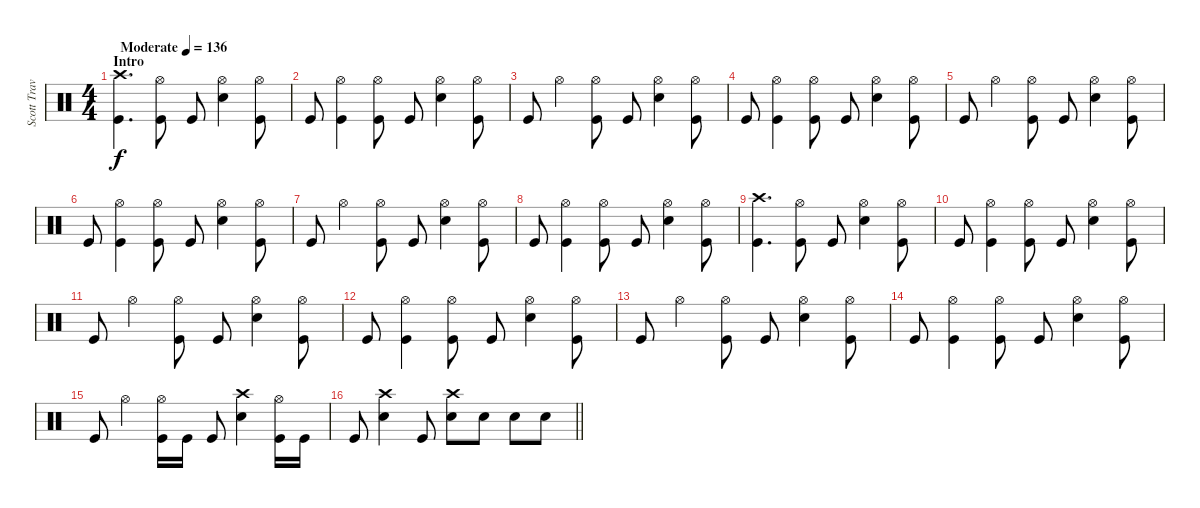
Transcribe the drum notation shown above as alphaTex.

\track ("Scott Travis" "Scott Trav") {instrument percussion}
\staff {score}
\articulation defaults
\ts (4 4)
\section ("" "Intro")
\tempo (136 "Moderate")
\clef neutral
\ks c
("Crash high (hit)" "Kick (hit)").4{d dy f} ("Hi-Hat (open)" "Kick (hit)").8 "Kick (hit)".8 ("Hi-Hat (open)" "Electric Snare (hit)").4 ("Hi-Hat (open)" "Kick (hit)").8 |
"Kick (hit)".8 ("Hi-Hat (open)" "Kick (hit)").4 ("Hi-Hat (open)" "Kick (hit)").8 "Kick (hit)".8 ("Hi-Hat (open)" "Electric Snare (hit)").4 ("Hi-Hat (open)" "Kick (hit)").8 |
"Kick (hit)".8 "Hi-Hat (open)".4 ("Hi-Hat (open)" "Kick (hit)").8 "Kick (hit)".8 ("Hi-Hat (open)" "Electric Snare (hit)").4 ("Hi-Hat (open)" "Kick (hit)").8 |
"Kick (hit)".8 ("Hi-Hat (open)" "Kick (hit)").4 ("Hi-Hat (open)" "Kick (hit)").8 "Kick (hit)".8 ("Hi-Hat (open)" "Electric Snare (hit)").4 ("Hi-Hat (open)" "Kick (hit)").8 |
"Kick (hit)".8 "Hi-Hat (open)".4 ("Hi-Hat (open)" "Kick (hit)").8 "Kick (hit)".8 ("Hi-Hat (open)" "Electric Snare (hit)").4 ("Hi-Hat (open)" "Kick (hit)").8 |
"Kick (hit)".8 ("Hi-Hat (open)" "Kick (hit)").4 ("Hi-Hat (open)" "Kick (hit)").8 "Kick (hit)".8 ("Hi-Hat (open)" "Electric Snare (hit)").4 ("Hi-Hat (open)" "Kick (hit)").8 |
"Kick (hit)".8 "Hi-Hat (open)".4 ("Hi-Hat (open)" "Kick (hit)").8 "Kick (hit)".8 ("Hi-Hat (open)" "Electric Snare (hit)").4 ("Hi-Hat (open)" "Kick (hit)").8 |
"Kick (hit)".8 ("Hi-Hat (open)" "Kick (hit)").4 ("Hi-Hat (open)" "Kick (hit)").8 "Kick (hit)".8 ("Hi-Hat (open)" "Electric Snare (hit)").4 ("Hi-Hat (open)" "Kick (hit)").8 |
("Crash high (hit)" "Kick (hit)").4{d} ("Hi-Hat (open)" "Kick (hit)").8 "Kick (hit)".8 ("Hi-Hat (open)" "Electric Snare (hit)").4 ("Hi-Hat (open)" "Kick (hit)").8 |
"Kick (hit)".8 ("Hi-Hat (open)" "Kick (hit)").4 ("Hi-Hat (open)" "Kick (hit)").8 "Kick (hit)".8 ("Hi-Hat (open)" "Electric Snare (hit)").4 ("Hi-Hat (open)" "Kick (hit)").8 |
"Kick (hit)".8 "Hi-Hat (open)".4 ("Hi-Hat (open)" "Kick (hit)").8 "Kick (hit)".8 ("Hi-Hat (open)" "Electric Snare (hit)").4 ("Hi-Hat (open)" "Kick (hit)").8 |
"Kick (hit)".8 ("Hi-Hat (open)" "Kick (hit)").4 ("Hi-Hat (open)" "Kick (hit)").8 "Kick (hit)".8 ("Hi-Hat (open)" "Electric Snare (hit)").4 ("Hi-Hat (open)" "Kick (hit)").8 |
"Kick (hit)".8 "Hi-Hat (open)".4 ("Hi-Hat (open)" "Kick (hit)").8 "Kick (hit)".8 ("Hi-Hat (open)" "Electric Snare (hit)").4 ("Hi-Hat (open)" "Kick (hit)").8 |
"Kick (hit)".8 ("Hi-Hat (open)" "Kick (hit)").4 ("Hi-Hat (open)" "Kick (hit)").8 "Kick (hit)".8 ("Hi-Hat (open)" "Electric Snare (hit)").4 ("Hi-Hat (open)" "Kick (hit)").8 |
"Kick (hit)".8 "Hi-Hat (open)".4 ("Hi-Hat (open)" "Kick (hit)").16 "Kick (hit)".16 "Kick (hit)".8 ("Crash high (hit)" "Electric Snare (hit)").4 ("Hi-Hat (open)" "Kick (hit)").16 "Kick (hit)".16 |
\barLineRight lightlight "Kick (hit)".8
("Crash high (hit)" "Electric Snare (hit)").4 "Kick (hit)".8 ("Crash high (hit)" "Snare (hit) 2").8 "Snare (hit) 2".8 "Snare (hit) 2".8 "Snare (hit) 2".8
